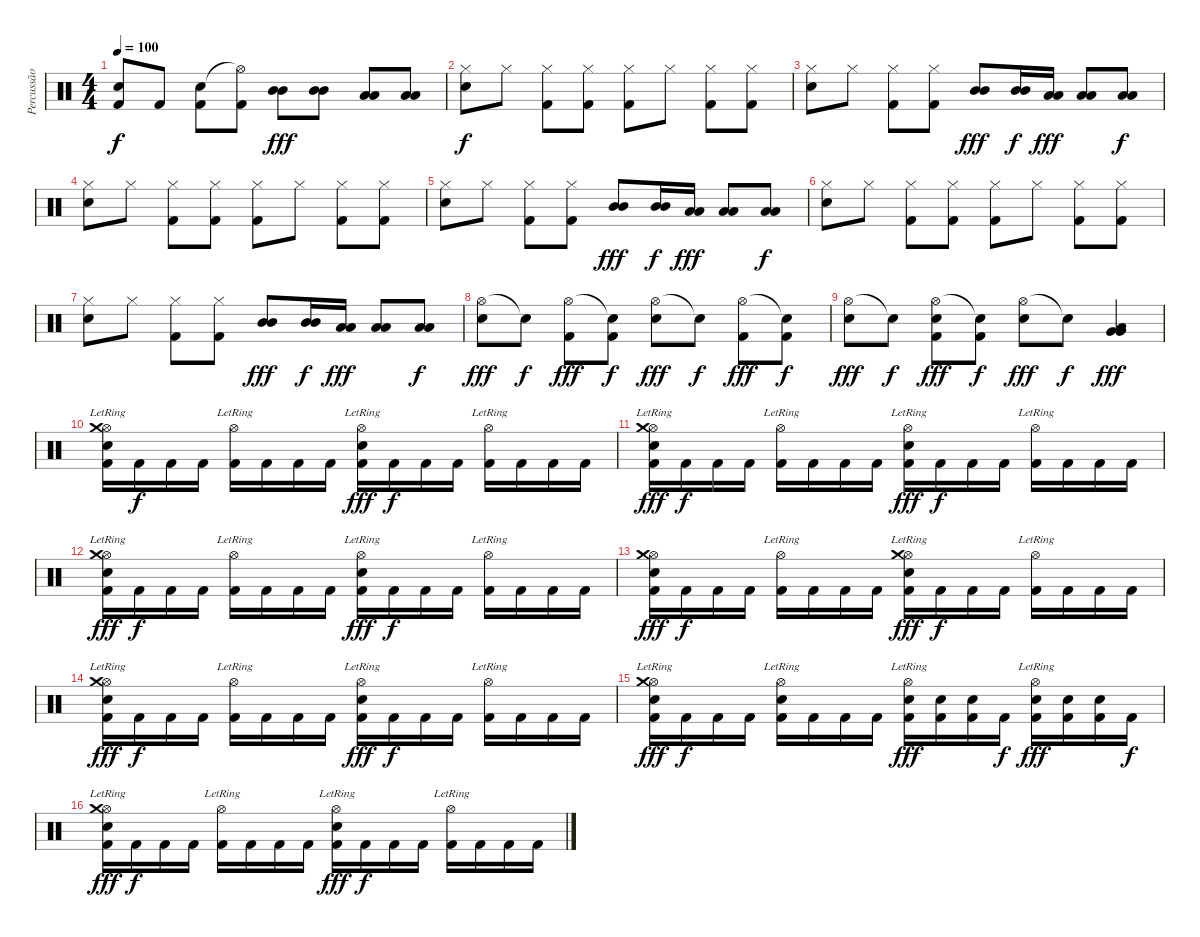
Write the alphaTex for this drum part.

\track ("Percussão" "Percussão") {instrument percussion}
\staff {score}
\articulation defaults
\ts (4 4)
\tempo 100
\clef neutral
\ks c
("Electric Snare (hit)" "Kick (hit) 2").8{dy f} "Kick (hit) 2".8 ("Electric Snare (hit)" "Kick (hit) 2").8 ("Hi-Hat (open)"{t} "Kick (hit) 2").8 ("Mid Tom (hit)" "Mid Tom (hit)").8{dy fff} ("Mid Tom (hit)" "Mid Tom (hit)").8 ("Low Tom (hit)" "Low Tom (hit)").8 ("Low Tom (hit)" "Low Tom (hit)").8 |
("Electric Snare (hit)" "Hi-Hat (closed)").8{dy f} "Hi-Hat (closed)".8 ("Hi-Hat (closed)" "Kick (hit) 2").8 ("Hi-Hat (closed)" "Kick (hit) 2").8 ("Hi-Hat (closed)" "Kick (hit) 2").8 "Hi-Hat (closed)".8 ("Hi-Hat (closed)" "Kick (hit) 2").8 ("Hi-Hat (closed)" "Kick (hit) 2").8 |
("Electric Snare (hit)" "Hi-Hat (closed)").8 "Hi-Hat (closed)".8 ("Hi-Hat (closed)" "Kick (hit) 2").8 ("Hi-Hat (closed)" "Kick (hit) 2").8 ("Mid Tom (hit)" "Mid Tom (hit)").8{dy fff} ("Mid Tom (hit)" "Mid Tom (hit)").16{dy f} ("Low Tom (hit)" "Low Tom (hit)").16{dy fff} ("Low Tom (hit)" "Low Tom (hit)").8 ("Low Tom (hit)" "Low Tom (hit)").8{dy f} |
("Electric Snare (hit)" "Hi-Hat (closed)").8 "Hi-Hat (closed)".8 ("Hi-Hat (closed)" "Kick (hit) 2").8 ("Hi-Hat (closed)" "Kick (hit) 2").8 ("Hi-Hat (closed)" "Kick (hit) 2").8 "Hi-Hat (closed)".8 ("Hi-Hat (closed)" "Kick (hit) 2").8 ("Hi-Hat (closed)" "Kick (hit) 2").8 |
("Electric Snare (hit)" "Hi-Hat (closed)").8 "Hi-Hat (closed)".8 ("Hi-Hat (closed)" "Kick (hit) 2").8 ("Hi-Hat (closed)" "Kick (hit) 2").8 ("Mid Tom (hit)" "Mid Tom (hit)").8{dy fff} ("Mid Tom (hit)" "Mid Tom (hit)").16{dy f} ("Low Tom (hit)" "Low Tom (hit)").16{dy fff} ("Low Tom (hit)" "Low Tom (hit)").8 ("Low Tom (hit)" "Low Tom (hit)").8{dy f} |
("Electric Snare (hit)" "Hi-Hat (closed)").8 "Hi-Hat (closed)".8 ("Hi-Hat (closed)" "Kick (hit) 2").8 ("Hi-Hat (closed)" "Kick (hit) 2").8 ("Hi-Hat (closed)" "Kick (hit) 2").8 "Hi-Hat (closed)".8 ("Hi-Hat (closed)" "Kick (hit) 2").8 ("Hi-Hat (closed)" "Kick (hit) 2").8 |
("Electric Snare (hit)" "Hi-Hat (closed)").8 "Hi-Hat (closed)".8 ("Hi-Hat (closed)" "Kick (hit) 2").8 ("Hi-Hat (closed)" "Kick (hit) 2").8 ("Mid Tom (hit)" "Mid Tom (hit)").8{dy fff} ("Mid Tom (hit)" "Mid Tom (hit)").16{dy f} ("Low Tom (hit)" "Low Tom (hit)").16{dy fff} ("Low Tom (hit)" "Low Tom (hit)").8 ("Low Tom (hit)" "Low Tom (hit)").8{dy f} |
("Hi-Hat (open)" "Electric Snare (hit)").8{dy fff} "Snare (hit)"{t}.8{dy f} ("Hi-Hat (open)" "Kick (hit) 2").8{dy fff} ("Snare (hit)"{t} "Kick (hit) 2").8{dy f} ("Hi-Hat (open)" "Electric Snare (hit)").8{dy fff} "Snare (hit)"{t}.8{dy f} ("Hi-Hat (open)" "Kick (hit) 2").8{dy fff} ("Snare (hit)"{t} "Kick (hit) 2").8{dy f} |
("Hi-Hat (open)" "Electric Snare (hit)").8{dy fff} "Snare (hit)"{t}.8{dy f} ("Hi-Hat (open)" "Electric Snare (hit)" "Kick (hit) 2").8{dy fff} ("Snare (hit)"{t} "Kick (hit) 2").8{dy f} ("Hi-Hat (open)" "Electric Snare (hit)").8{dy fff} "Snare (hit)"{t}.8{dy f} ("Very Low Tom (hit)" "Very Low Tom (hit)" "Low Tom (hit)").4{dy fff} |
("Hi-Hat (open)"{lr} "Crash medium (hit)" "Electric Snare (hit)" "Kick (hit) 2").16 "Kick (hit) 2".16{dy f} "Kick (hit) 2".16 "Kick (hit) 2".16 ("Hi-Hat (open)"{lr} "Kick (hit) 2").16 "Kick (hit) 2".16 "Kick (hit) 2".16 "Kick (hit) 2".16 ("Hi-Hat (open)"{lr} "Electric Snare (hit)" "Kick (hit) 2").16{dy fff} "Kick (hit) 2".16{dy f} "Kick (hit) 2".16 "Kick (hit) 2".16 ("Hi-Hat (open)"{lr} "Kick (hit) 2").16 "Kick (hit) 2".16 "Kick (hit) 2".16 "Kick (hit) 2".16 |
("Hi-Hat (open)"{lr} "Crash medium (hit)" "Electric Snare (hit)" "Kick (hit) 2").16{dy fff} "Kick (hit) 2".16{dy f} "Kick (hit) 2".16 "Kick (hit) 2".16 ("Hi-Hat (open)"{lr} "Kick (hit) 2").16 "Kick (hit) 2".16 "Kick (hit) 2".16 "Kick (hit) 2".16 ("Hi-Hat (open)"{lr} "Electric Snare (hit)" "Kick (hit) 2").16{dy fff} "Kick (hit) 2".16{dy f} "Kick (hit) 2".16 "Kick (hit) 2".16 ("Hi-Hat (open)"{lr} "Kick (hit) 2").16 "Kick (hit) 2".16 "Kick (hit) 2".16 "Kick (hit) 2".16 |
("Hi-Hat (open)"{lr} "Crash medium (hit)" "Electric Snare (hit)" "Kick (hit) 2").16{dy fff} "Kick (hit) 2".16{dy f} "Kick (hit) 2".16 "Kick (hit) 2".16 ("Hi-Hat (open)"{lr} "Kick (hit) 2").16 "Kick (hit) 2".16 "Kick (hit) 2".16 "Kick (hit) 2".16 ("Hi-Hat (open)"{lr} "Electric Snare (hit)" "Kick (hit) 2").16{dy fff} "Kick (hit) 2".16{dy f} "Kick (hit) 2".16 "Kick (hit) 2".16 ("Hi-Hat (open)"{lr} "Kick (hit) 2").16 "Kick (hit) 2".16 "Kick (hit) 2".16 "Kick (hit) 2".16 |
("Hi-Hat (open)" "Crash medium (hit)" "Electric Snare (hit)" "Kick (hit) 2").16{dy fff} "Kick (hit) 2".16{dy f} "Kick (hit) 2".16 "Kick (hit) 2".16 ("Hi-Hat (open)"{lr} "Kick (hit) 2").16 "Kick (hit) 2".16 "Kick (hit) 2".16 "Kick (hit) 2".16 ("Hi-Hat (open)"{lr} "Crash medium (hit)" "Electric Snare (hit)" "Kick (hit) 2").16{dy fff} "Kick (hit) 2".16{dy f} "Kick (hit) 2".16 "Kick (hit) 2".16 ("Hi-Hat (open)"{lr} "Kick (hit) 2").16 "Kick (hit) 2".16 "Kick (hit) 2".16 "Kick (hit) 2".16 |
("Hi-Hat (open)"{lr} "Crash medium (hit)" "Electric Snare (hit)" "Kick (hit) 2").16{dy fff} "Kick (hit) 2".16{dy f} "Kick (hit) 2".16 "Kick (hit) 2".16 ("Hi-Hat (open)"{lr} "Kick (hit) 2").16 "Kick (hit) 2".16 "Kick (hit) 2".16 "Kick (hit) 2".16 ("Hi-Hat (open)"{lr} "Electric Snare (hit)" "Kick (hit) 2").16{dy fff} "Kick (hit) 2".16{dy f} "Kick (hit) 2".16 "Kick (hit) 2".16 ("Hi-Hat (open)"{lr} "Kick (hit) 2").16 "Kick (hit) 2".16 "Kick (hit) 2".16 "Kick (hit) 2".16 |
("Hi-Hat (open)"{lr} "Crash medium (hit)" "Electric Snare (hit)" "Kick (hit) 2").16{dy fff} "Kick (hit) 2".16{dy f} "Kick (hit) 2".16 "Kick (hit) 2".16 ("Hi-Hat (open)"{lr} "Electric Snare (hit)" "Kick (hit) 2").16 "Kick (hit) 2".16 "Kick (hit) 2".16 "Kick (hit) 2".16 ("Hi-Hat (open)"{lr} "Electric Snare (hit)" "Kick (hit) 2").16{dy fff} ("Electric Snare (hit)" "Kick (hit) 2").16 ("Electric Snare (hit)" "Kick (hit) 2").16 "Kick (hit) 2".16{dy f} ("Hi-Hat (open)"{lr} "Electric Snare (hit)" "Kick (hit) 2").16{dy fff} ("Electric Snare (hit)" "Kick (hit) 2").16 ("Electric Snare (hit)" "Kick (hit) 2").16 "Kick (hit) 2".16{dy f} |
("Hi-Hat (open)"{lr} "Crash medium (hit)" "Electric Snare (hit)" "Kick (hit) 2").16{dy fff} "Kick (hit) 2".16{dy f} "Kick (hit) 2".16 "Kick (hit) 2".16 ("Hi-Hat (open)"{lr} "Kick (hit) 2").16 "Kick (hit) 2".16 "Kick (hit) 2".16 "Kick (hit) 2".16 ("Hi-Hat (open)"{lr} "Electric Snare (hit)" "Kick (hit) 2").16{dy fff} "Kick (hit) 2".16{dy f} "Kick (hit) 2".16 "Kick (hit) 2".16 ("Hi-Hat (open)"{lr} "Kick (hit) 2").16 "Kick (hit) 2".16 "Kick (hit) 2".16 "Kick (hit) 2".16
